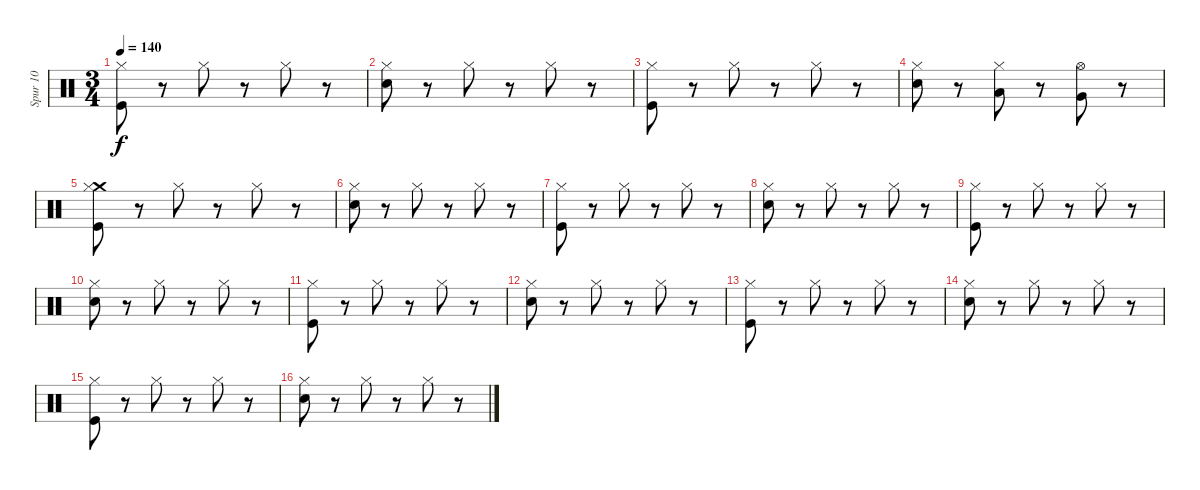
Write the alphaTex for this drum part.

\track ("Spur 10" "Spur 10") {instrument percussion}
\staff {score}
\articulation defaults
\ts (3 4)
\tempo 140
\clef neutral
\ks c
("Kick (hit)" "Hi-Hat (closed)").8{dy f} r.8 "Hi-Hat (closed)".8 r.8 "Hi-Hat (closed)".8 r.8 |
("Snare (hit) 2" "Hi-Hat (closed)").8 r.8 "Hi-Hat (closed)".8 r.8 "Hi-Hat (closed)".8 r.8 |
("Kick (hit)" "Hi-Hat (closed)").8 r.8 "Hi-Hat (closed)".8 r.8 "Hi-Hat (closed)".8 r.8 |
("Snare (hit) 2" "Hi-Hat (closed)").8 r.8 ("Low Tom (hit)" "Hi-Hat (closed)").8 r.8 ("Very Low Tom (hit)" "Hi-Hat (open)").8 r.8 |
("Crash medium (hit)" "Kick (hit)" "Hi-Hat (closed)").8 r.8 "Hi-Hat (closed)".8 r.8 "Hi-Hat (closed)".8 r.8 |
("Snare (hit) 2" "Hi-Hat (closed)").8 r.8 "Hi-Hat (closed)".8 r.8 "Hi-Hat (closed)".8 r.8 |
("Kick (hit)" "Hi-Hat (closed)").8 r.8 "Hi-Hat (closed)".8 r.8 "Hi-Hat (closed)".8 r.8 |
("Snare (hit) 2" "Hi-Hat (closed)").8 r.8 "Hi-Hat (closed)".8 r.8 "Hi-Hat (closed)".8 r.8 |
("Kick (hit)" "Hi-Hat (closed)").8 r.8 "Hi-Hat (closed)".8 r.8 "Hi-Hat (closed)".8 r.8 |
("Snare (hit) 2" "Hi-Hat (closed)").8 r.8 "Hi-Hat (closed)".8 r.8 "Hi-Hat (closed)".8 r.8 |
("Kick (hit)" "Hi-Hat (closed)").8 r.8 "Hi-Hat (closed)".8 r.8 "Hi-Hat (closed)".8 r.8 |
("Snare (hit) 2" "Hi-Hat (closed)").8 r.8 "Hi-Hat (closed)".8 r.8 "Hi-Hat (closed)".8 r.8 |
("Kick (hit)" "Hi-Hat (closed)").8 r.8 "Hi-Hat (closed)".8 r.8 "Hi-Hat (closed)".8 r.8 |
("Snare (hit) 2" "Hi-Hat (closed)").8 r.8 "Hi-Hat (closed)".8 r.8 "Hi-Hat (closed)".8 r.8 |
("Kick (hit)" "Hi-Hat (closed)").8 r.8 "Hi-Hat (closed)".8 r.8 "Hi-Hat (closed)".8 r.8 |
("Snare (hit) 2" "Hi-Hat (closed)").8 r.8 "Hi-Hat (closed)".8 r.8 "Hi-Hat (closed)".8 r.8
